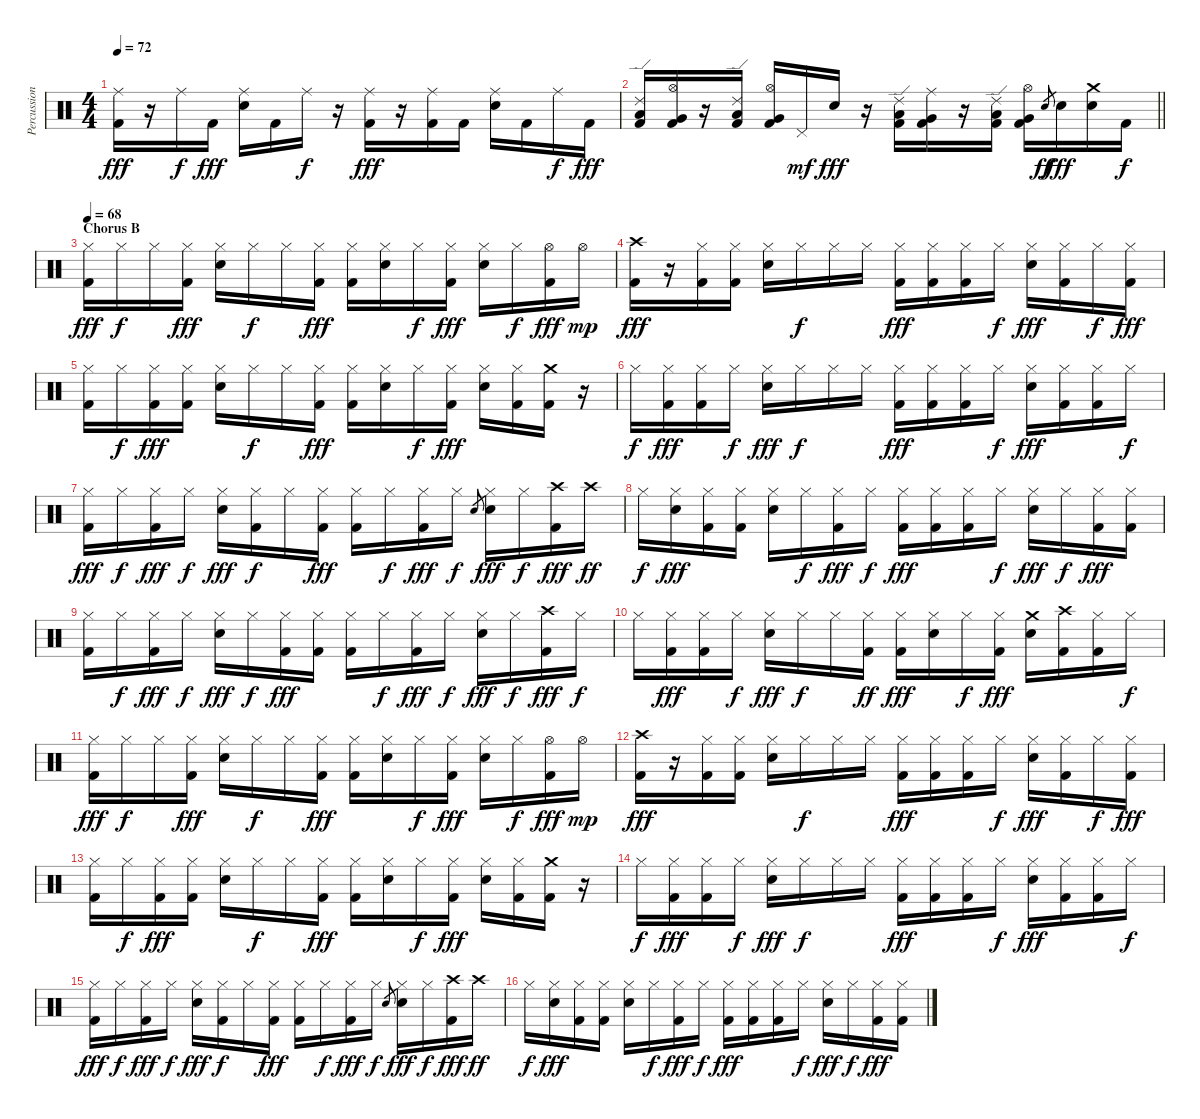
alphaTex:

\track ("Percussion" "Percussion") {instrument percussion}
\staff {score}
\articulation defaults
\ts (4 4)
\tempo 72
\clef neutral
\ks c
("Ride (middle)" "Kick (hit) 2").16{dy fff} r.16 "Ride (middle)".16{dy f} "Kick (hit) 2".16{dy fff} ("Ride (middle)" "Electric Snare (hit)").16 "Kick (hit) 2".16 "Ride (middle)".16{dy f} r.16 ("Ride (middle)" "Kick (hit) 2").16{dy fff} r.16 ("Ride (middle)" "Kick (hit) 2").16 "Kick (hit) 2".16 ("Ride (middle)" "Electric Snare (hit)").16 "Kick (hit) 2".16 "Ride (middle)".16{dy f} "Kick (hit) 2".16{dy fff} |
\barLineRight lightlight
("Ride (edge) 2" "Low Tom (hit)" "Kick (hit) 2").16 ("Hi-Hat (open)" "Very Low Tom (hit)" "Kick (hit) 2").16 r.16 ("Ride (edge) 2" "Low Tom (hit)" "Kick (hit) 2").16 ("Hi-Hat (open)" "Very Low Tom (hit)" "Kick (hit) 2").16 "Pedal Hi-Hat (hit)".16{dy mf} "Electric Snare (hit)".16{dy fff} r.16 ("Ride (edge) 2" "Low Tom (hit)" "Kick (hit) 2").16 ("Ride (middle)" "Very Low Tom (hit)" "Kick (hit) 2").16 r.16 ("Ride (edge) 2" "Low Tom (hit)" "Kick (hit) 2").16 ("Hi-Hat (open)" "Very Low Tom (hit)" "Kick (hit) 2").16 "Electric Snare (hit)".8{gr dy ff} "Electric Snare (hit)".16{dy fff} ("Crash medium (hit)" "Electric Snare (hit)").16 "Kick (hit) 2".16{dy f} |
\section ("" "Chorus B")
\tempo 68
("Hi-Hat (closed)" "Kick (hit) 2").16{dy fff} "Hi-Hat (closed)".16{dy f} "Hi-Hat (closed)".16 ("Hi-Hat (closed)" "Kick (hit) 2").16{dy fff} ("Hi-Hat (closed)" "Electric Snare (hit)").16 "Hi-Hat (closed)".16{dy f} "Hi-Hat (closed)".16 ("Hi-Hat (closed)" "Kick (hit) 2").16{dy fff} ("Hi-Hat (closed)" "Kick (hit) 2").16 ("Hi-Hat (closed)" "Electric Snare (hit)").16 "Hi-Hat (closed)".16{dy f} ("Hi-Hat (closed)" "Kick (hit) 2").16{dy fff} ("Hi-Hat (closed)" "Electric Snare (hit)").16 "Hi-Hat (closed)".16{dy f} ("Hi-Hat (open)" "Kick (hit) 2").16{dy fff} "Hi-Hat (open)".16{dy mp} |
("Crash high (hit)" "Kick (hit) 2").16{dy fff} r.16 ("Hi-Hat (closed)" "Kick (hit) 2").16 ("Hi-Hat (closed)" "Kick (hit) 2").16 ("Hi-Hat (closed)" "Electric Snare (hit)").16 "Hi-Hat (closed)".16{dy f} "Hi-Hat (closed)".16 "Hi-Hat (closed)".16 ("Hi-Hat (closed)" "Kick (hit) 2").16{dy fff} ("Hi-Hat (closed)" "Kick (hit) 2").16 ("Hi-Hat (closed)" "Kick (hit) 2").16 "Hi-Hat (closed)".16{dy f} ("Hi-Hat (closed)" "Electric Snare (hit)").16{dy fff} ("Hi-Hat (closed)" "Kick (hit) 2").16 "Hi-Hat (closed)".16{dy f} ("Hi-Hat (closed)" "Kick (hit) 2").16{dy fff} |
("Hi-Hat (closed)" "Kick (hit) 2").16 "Hi-Hat (closed)".16{dy f} ("Hi-Hat (closed)" "Kick (hit) 2").16{dy fff} ("Hi-Hat (closed)" "Kick (hit) 2").16 ("Hi-Hat (closed)" "Electric Snare (hit)").16 "Hi-Hat (closed)".16{dy f} "Hi-Hat (closed)".16 ("Hi-Hat (closed)" "Kick (hit) 2").16{dy fff} ("Hi-Hat (closed)" "Kick (hit) 2").16 ("Hi-Hat (closed)" "Electric Snare (hit)").16 "Hi-Hat (closed)".16{dy f} ("Hi-Hat (closed)" "Kick (hit) 2").16{dy fff} ("Hi-Hat (closed)" "Electric Snare (hit)").16 ("Hi-Hat (closed)" "Kick (hit) 2").16 ("Crash medium (hit)" "Kick (hit) 2").16 r.16 |
"Hi-Hat (closed)".16{dy f} ("Hi-Hat (closed)" "Kick (hit) 2").16{dy fff} ("Hi-Hat (closed)" "Kick (hit) 2").16 "Hi-Hat (closed)".16{dy f} ("Hi-Hat (closed)" "Electric Snare (hit)").16{dy fff} "Hi-Hat (closed)".16{dy f} "Hi-Hat (closed)".16 "Hi-Hat (closed)".16 ("Hi-Hat (closed)" "Kick (hit) 2").16{dy fff} ("Hi-Hat (closed)" "Kick (hit) 2").16 ("Hi-Hat (closed)" "Kick (hit) 2").16 "Hi-Hat (closed)".16{dy f} ("Hi-Hat (closed)" "Electric Snare (hit)").16{dy fff} ("Hi-Hat (closed)" "Kick (hit) 2").16 ("Hi-Hat (closed)" "Kick (hit) 2").16 "Hi-Hat (closed)".16{dy f} |
("Hi-Hat (closed)" "Kick (hit) 2").16{dy fff} "Hi-Hat (closed)".16{dy f} ("Hi-Hat (closed)" "Kick (hit) 2").16{dy fff} "Hi-Hat (closed)".16{dy f} ("Hi-Hat (closed)" "Electric Snare (hit)").16{dy fff} ("Hi-Hat (closed)" "Kick (hit) 2").16{dy f} "Hi-Hat (closed)".16 ("Hi-Hat (closed)" "Kick (hit) 2").16{dy fff} ("Hi-Hat (closed)" "Kick (hit) 2").16 "Hi-Hat (closed)".16{dy f} ("Hi-Hat (closed)" "Kick (hit) 2").16{dy fff} "Hi-Hat (closed)".16{dy f} "Electric Snare (hit)".8{gr} ("Hi-Hat (closed)" "Electric Snare (hit)").16{dy fff} "Hi-Hat (closed)".16{dy f} ("Crash high (hit)" "Kick (hit) 2").16{dy fff} "Crash high (hit)".16{dy ff} |
"Hi-Hat (closed)".16{dy f} ("Hi-Hat (closed)" "Electric Snare (hit)").16{dy fff} ("Hi-Hat (closed)" "Kick (hit) 2").16 ("Hi-Hat (closed)" "Kick (hit) 2").16 ("Hi-Hat (closed)" "Electric Snare (hit)").16 "Hi-Hat (closed)".16{dy f} ("Hi-Hat (closed)" "Kick (hit) 2").16{dy fff} "Hi-Hat (closed)".16{dy f} ("Hi-Hat (closed)" "Kick (hit) 2").16{dy fff} ("Hi-Hat (closed)" "Kick (hit) 2").16 ("Hi-Hat (closed)" "Kick (hit) 2").16 "Hi-Hat (closed)".16{dy f} ("Hi-Hat (closed)" "Electric Snare (hit)").16{dy fff} "Hi-Hat (closed)".16{dy f} ("Hi-Hat (closed)" "Kick (hit) 2").16{dy fff} ("Hi-Hat (closed)" "Kick (hit) 2").16 |
("Hi-Hat (closed)" "Kick (hit) 2").16 "Hi-Hat (closed)".16{dy f} ("Hi-Hat (closed)" "Kick (hit) 2").16{dy fff} "Hi-Hat (closed)".16{dy f} ("Hi-Hat (closed)" "Electric Snare (hit)").16{dy fff} "Hi-Hat (closed)".16{dy f} ("Hi-Hat (closed)" "Kick (hit) 2").16{dy fff} ("Hi-Hat (closed)" "Kick (hit) 2").16 ("Hi-Hat (closed)" "Kick (hit) 2").16 "Hi-Hat (closed)".16{dy f} ("Hi-Hat (closed)" "Kick (hit) 2").16{dy fff} "Hi-Hat (closed)".16{dy f} ("Hi-Hat (closed)" "Electric Snare (hit)").16{dy fff} "Hi-Hat (closed)".16{dy f} ("Crash high (hit)" "Kick (hit) 2").16{dy fff} "Hi-Hat (closed)".16{dy f} |
"Hi-Hat (closed)".16 ("Hi-Hat (closed)" "Kick (hit) 2").16{dy fff} ("Hi-Hat (closed)" "Kick (hit) 2").16 "Hi-Hat (closed)".16{dy f} ("Hi-Hat (closed)" "Electric Snare (hit)").16{dy fff} "Hi-Hat (closed)".16{dy f} "Hi-Hat (closed)".16 ("Hi-Hat (closed)" "Kick (hit) 2").16{dy ff} ("Hi-Hat (closed)" "Kick (hit) 2").16{dy fff} ("Hi-Hat (closed)" "Electric Snare (hit)").16 "Hi-Hat (closed)".16{dy f} ("Hi-Hat (closed)" "Kick (hit) 2").16{dy fff} ("Crash medium (hit)" "Electric Snare (hit)").16 ("Crash high (hit)" "Kick (hit) 2").16 ("Hi-Hat (closed)" "Kick (hit) 2").16 "Hi-Hat (closed)".16{dy f} |
("Hi-Hat (closed)" "Kick (hit) 2").16{dy fff} "Hi-Hat (closed)".16{dy f} "Hi-Hat (closed)".16 ("Hi-Hat (closed)" "Kick (hit) 2").16{dy fff} ("Hi-Hat (closed)" "Electric Snare (hit)").16 "Hi-Hat (closed)".16{dy f} "Hi-Hat (closed)".16 ("Hi-Hat (closed)" "Kick (hit) 2").16{dy fff} ("Hi-Hat (closed)" "Kick (hit) 2").16 ("Hi-Hat (closed)" "Electric Snare (hit)").16 "Hi-Hat (closed)".16{dy f} ("Hi-Hat (closed)" "Kick (hit) 2").16{dy fff} ("Hi-Hat (closed)" "Electric Snare (hit)").16 "Hi-Hat (closed)".16{dy f} ("Hi-Hat (open)" "Kick (hit) 2").16{dy fff} "Hi-Hat (open)".16{dy mp} |
("Crash high (hit)" "Kick (hit) 2").16{dy fff} r.16 ("Hi-Hat (closed)" "Kick (hit) 2").16 ("Hi-Hat (closed)" "Kick (hit) 2").16 ("Hi-Hat (closed)" "Electric Snare (hit)").16 "Hi-Hat (closed)".16{dy f} "Hi-Hat (closed)".16 "Hi-Hat (closed)".16 ("Hi-Hat (closed)" "Kick (hit) 2").16{dy fff} ("Hi-Hat (closed)" "Kick (hit) 2").16 ("Hi-Hat (closed)" "Kick (hit) 2").16 "Hi-Hat (closed)".16{dy f} ("Hi-Hat (closed)" "Electric Snare (hit)").16{dy fff} ("Hi-Hat (closed)" "Kick (hit) 2").16 "Hi-Hat (closed)".16{dy f} ("Hi-Hat (closed)" "Kick (hit) 2").16{dy fff} |
("Hi-Hat (closed)" "Kick (hit) 2").16 "Hi-Hat (closed)".16{dy f} ("Hi-Hat (closed)" "Kick (hit) 2").16{dy fff} ("Hi-Hat (closed)" "Kick (hit) 2").16 ("Hi-Hat (closed)" "Electric Snare (hit)").16 "Hi-Hat (closed)".16{dy f} "Hi-Hat (closed)".16 ("Hi-Hat (closed)" "Kick (hit) 2").16{dy fff} ("Hi-Hat (closed)" "Kick (hit) 2").16 ("Hi-Hat (closed)" "Electric Snare (hit)").16 "Hi-Hat (closed)".16{dy f} ("Hi-Hat (closed)" "Kick (hit) 2").16{dy fff} ("Hi-Hat (closed)" "Electric Snare (hit)").16 ("Hi-Hat (closed)" "Kick (hit) 2").16 ("Crash medium (hit)" "Kick (hit) 2").16 r.16 |
"Hi-Hat (closed)".16{dy f} ("Hi-Hat (closed)" "Kick (hit) 2").16{dy fff} ("Hi-Hat (closed)" "Kick (hit) 2").16 "Hi-Hat (closed)".16{dy f} ("Hi-Hat (closed)" "Electric Snare (hit)").16{dy fff} "Hi-Hat (closed)".16{dy f} "Hi-Hat (closed)".16 "Hi-Hat (closed)".16 ("Hi-Hat (closed)" "Kick (hit) 2").16{dy fff} ("Hi-Hat (closed)" "Kick (hit) 2").16 ("Hi-Hat (closed)" "Kick (hit) 2").16 "Hi-Hat (closed)".16{dy f} ("Hi-Hat (closed)" "Electric Snare (hit)").16{dy fff} ("Hi-Hat (closed)" "Kick (hit) 2").16 ("Hi-Hat (closed)" "Kick (hit) 2").16 "Hi-Hat (closed)".16{dy f} |
("Hi-Hat (closed)" "Kick (hit) 2").16{dy fff} "Hi-Hat (closed)".16{dy f} ("Hi-Hat (closed)" "Kick (hit) 2").16{dy fff} "Hi-Hat (closed)".16{dy f} ("Hi-Hat (closed)" "Electric Snare (hit)").16{dy fff} ("Hi-Hat (closed)" "Kick (hit) 2").16{dy f} "Hi-Hat (closed)".16 ("Hi-Hat (closed)" "Kick (hit) 2").16{dy fff} ("Hi-Hat (closed)" "Kick (hit) 2").16 "Hi-Hat (closed)".16{dy f} ("Hi-Hat (closed)" "Kick (hit) 2").16{dy fff} "Hi-Hat (closed)".16{dy f} "Electric Snare (hit)".8{gr} ("Hi-Hat (closed)" "Electric Snare (hit)").16{dy fff} "Hi-Hat (closed)".16{dy f} ("Crash high (hit)" "Kick (hit) 2").16{dy fff} "Crash high (hit)".16{dy ff} |
"Hi-Hat (closed)".16{dy f} ("Hi-Hat (closed)" "Electric Snare (hit)").16{dy fff} ("Hi-Hat (closed)" "Kick (hit) 2").16 ("Hi-Hat (closed)" "Kick (hit) 2").16 ("Hi-Hat (closed)" "Electric Snare (hit)").16 "Hi-Hat (closed)".16{dy f} ("Hi-Hat (closed)" "Kick (hit) 2").16{dy fff} "Hi-Hat (closed)".16{dy f} ("Hi-Hat (closed)" "Kick (hit) 2").16{dy fff} ("Hi-Hat (closed)" "Kick (hit) 2").16 ("Hi-Hat (closed)" "Kick (hit) 2").16 "Hi-Hat (closed)".16{dy f} ("Hi-Hat (closed)" "Electric Snare (hit)").16{dy fff} "Hi-Hat (closed)".16{dy f} ("Hi-Hat (closed)" "Kick (hit) 2").16{dy fff} ("Hi-Hat (closed)" "Kick (hit) 2").16
